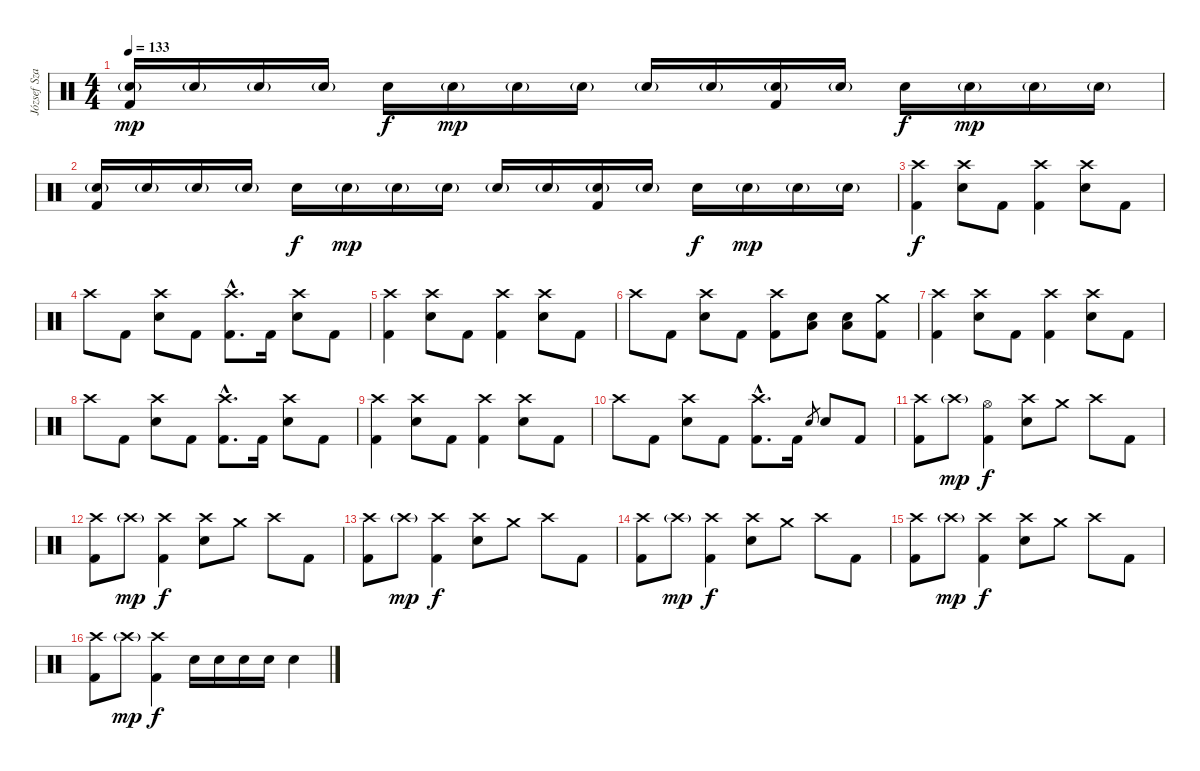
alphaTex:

\track ("József Szakács (Drums)" "József Sza") {instrument percussion}
\staff {score}
\articulation defaults
\ts (4 4)
\tempo 133
\clef neutral
\ks c
("Snare (hit) 2"{g} "Kick (hit) 2").16{dy mp} "Snare (hit) 2"{g}.16 "Snare (hit) 2"{g}.16 "Snare (hit) 2"{g}.16 "Snare (hit) 2".16{dy f} "Snare (hit) 2"{g}.16{dy mp} "Snare (hit) 2"{g}.16 "Snare (hit) 2"{g}.16 "Snare (hit) 2"{g}.16 "Snare (hit) 2"{g}.16 ("Snare (hit) 2"{g} "Kick (hit) 2").16 "Snare (hit) 2"{g}.16 "Snare (hit) 2".16{dy f} "Snare (hit) 2"{g}.16{dy mp} "Snare (hit) 2"{g}.16 "Snare (hit) 2"{g}.16 |
("Snare (hit) 2"{g} "Kick (hit) 2").16 "Snare (hit) 2"{g}.16 "Snare (hit) 2"{g}.16 "Snare (hit) 2"{g}.16 "Snare (hit) 2".16{dy f} "Snare (hit) 2"{g}.16{dy mp} "Snare (hit) 2"{g}.16 "Snare (hit) 2"{g}.16 "Snare (hit) 2"{g}.16 "Snare (hit) 2"{g}.16 ("Snare (hit) 2"{g} "Kick (hit) 2").16 "Snare (hit) 2"{g}.16 "Snare (hit) 2".16{dy f} "Snare (hit) 2"{g}.16{dy mp} "Snare (hit) 2"{g}.16 "Snare (hit) 2"{g}.16 |
("Crash high (hit)" "Kick (hit) 2").4{dy f} ("Crash high (hit)" "Snare (hit) 2").8 "Kick (hit) 2".8 ("Crash high (hit)" "Kick (hit) 2").4 ("Crash high (hit)" "Snare (hit) 2").8 "Kick (hit) 2".8 |
"Crash high (hit)".8 "Kick (hit) 2".8 ("Crash high (hit)" "Snare (hit) 2").8 "Kick (hit) 2".8 ("Crash high (hit)"{hac} "Kick (hit) 2"{hac}).8{d} "Kick (hit) 2".16 ("Crash high (hit)" "Snare (hit) 2").8 "Kick (hit) 2".8 |
("Crash high (hit)" "Kick (hit) 2").4 ("Crash high (hit)" "Snare (hit) 2").8 "Kick (hit) 2".8 ("Crash high (hit)" "Kick (hit) 2").4 ("Crash high (hit)" "Snare (hit) 2").8 "Kick (hit) 2".8 |
"Crash high (hit)".8 "Kick (hit) 2".8 ("Crash high (hit)" "Snare (hit) 2").8 "Kick (hit) 2".8 ("Crash high (hit)" "Kick (hit) 2").8 ("Low Floor Tom (hit)" "Snare (hit) 2").8 ("Low Floor Tom (hit)" "Snare (hit) 2").8 ("Crash medium (hit)" "Kick (hit) 2").8 |
("Crash high (hit)" "Kick (hit) 2").4 ("Crash high (hit)" "Snare (hit) 2").8 "Kick (hit) 2".8 ("Crash high (hit)" "Kick (hit) 2").4 ("Crash high (hit)" "Snare (hit) 2").8 "Kick (hit) 2".8 |
"Crash high (hit)".8 "Kick (hit) 2".8 ("Crash high (hit)" "Snare (hit) 2").8 "Kick (hit) 2".8 ("Crash high (hit)"{hac} "Kick (hit) 2"{hac}).8{d} "Kick (hit) 2".16 ("Crash high (hit)" "Snare (hit) 2").8 "Kick (hit) 2".8 |
("Crash high (hit)" "Kick (hit) 2").4 ("Crash high (hit)" "Snare (hit) 2").8 "Kick (hit) 2".8 ("Crash high (hit)" "Kick (hit) 2").4 ("Crash high (hit)" "Snare (hit) 2").8 "Kick (hit) 2".8 |
"Crash high (hit)".8 "Kick (hit) 2".8 ("Crash high (hit)" "Snare (hit) 2").8 "Kick (hit) 2".8 ("Crash high (hit)"{hac} "Kick (hit) 2"{hac}).8{d} "Kick (hit) 2".16 "Snare (hit) 2".8{gr} "Snare (hit) 2".8 "Kick (hit) 2".8 |
("Crash high (hit)" "Kick (hit) 2").8 "Crash high (hit)"{g}.8{dy mp} ("Hi-Hat (open)" "Kick (hit) 2").4{dy f} ("Crash high (hit)" "Snare (hit) 2").8 "Crash medium (hit)".8 "Crash high (hit)".8 "Kick (hit) 2".8 |
("Crash high (hit)" "Kick (hit) 2").8 "Crash high (hit)"{g}.8{dy mp} ("Crash high (hit)" "Kick (hit) 2").4{dy f} ("Crash high (hit)" "Snare (hit) 2").8 "Crash medium (hit)".8 "Crash high (hit)".8 "Kick (hit) 2".8 |
("Crash high (hit)" "Kick (hit) 2").8 "Crash high (hit)"{g}.8{dy mp} ("Crash high (hit)" "Kick (hit) 2").4{dy f} ("Crash high (hit)" "Snare (hit) 2").8 "Crash medium (hit)".8 "Crash high (hit)".8 "Kick (hit) 2".8 |
("Crash high (hit)" "Kick (hit) 2").8 "Crash high (hit)"{g}.8{dy mp} ("Crash high (hit)" "Kick (hit) 2").4{dy f} ("Crash high (hit)" "Snare (hit) 2").8 "Crash medium (hit)".8 "Crash high (hit)".8 "Kick (hit) 2".8 |
("Crash high (hit)" "Kick (hit) 2").8 "Crash high (hit)"{g}.8{dy mp} ("Crash high (hit)" "Kick (hit) 2").4{dy f} ("Crash high (hit)" "Snare (hit) 2").8 "Crash medium (hit)".8 "Crash high (hit)".8 "Kick (hit) 2".8 |
("Crash high (hit)" "Kick (hit) 2").8 "Crash high (hit)"{g}.8{dy mp} ("Crash high (hit)" "Kick (hit) 2").4{dy f} "Snare (hit) 2".16 "Snare (hit) 2".16 "Snare (hit) 2".16 "Snare (hit) 2".16 "Snare (hit) 2".4
